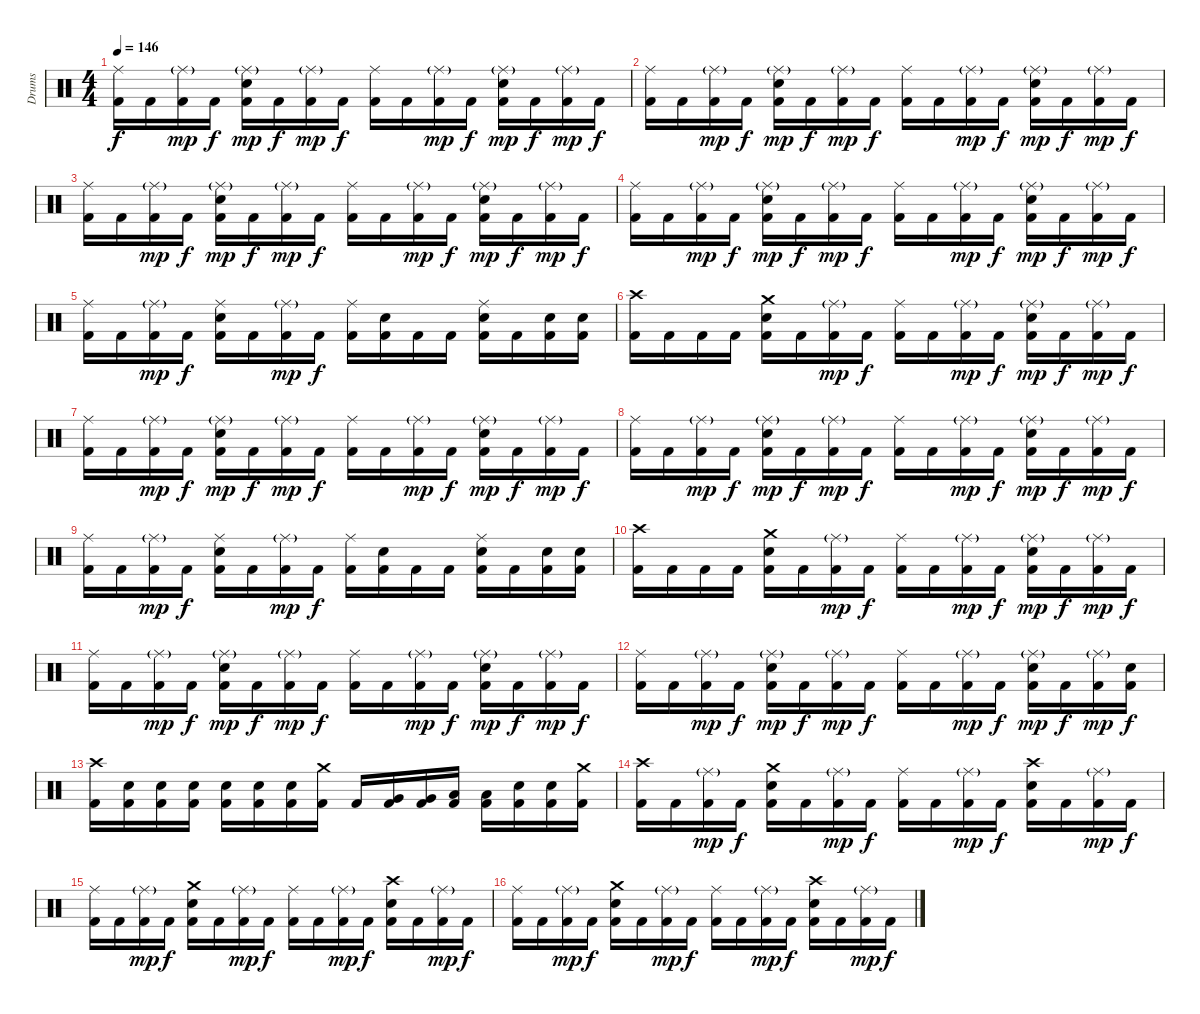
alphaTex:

\track ("Drums" "Drums") {instrument percussion}
\staff {score}
\articulation defaults
\ts (4 4)
\tempo 146
\clef neutral
\ks c
("Ride (middle)" "Kick (hit) 2").16{dy f} "Kick (hit) 2".16 ("Ride (middle)"{g} "Kick (hit) 2").16{dy mp} "Kick (hit) 2".16{dy f} ("Ride (middle)"{g} "Snare (hit) 2" "Kick (hit) 2").16{dy mp} "Kick (hit) 2".16{dy f} ("Ride (middle)"{g} "Kick (hit) 2").16{dy mp} "Kick (hit) 2".16{dy f} ("Ride (middle)" "Kick (hit) 2").16 "Kick (hit) 2".16 ("Ride (middle)"{g} "Kick (hit) 2").16{dy mp} "Kick (hit) 2".16{dy f} ("Ride (middle)"{g} "Snare (hit) 2" "Kick (hit) 2").16{dy mp} "Kick (hit) 2".16{dy f} ("Ride (middle)"{g} "Kick (hit) 2").16{dy mp} "Kick (hit) 2".16{dy f} |
("Ride (middle)" "Kick (hit) 2").16 "Kick (hit) 2".16 ("Ride (middle)"{g} "Kick (hit) 2").16{dy mp} "Kick (hit) 2".16{dy f} ("Ride (middle)"{g} "Snare (hit) 2" "Kick (hit) 2").16{dy mp} "Kick (hit) 2".16{dy f} ("Ride (middle)"{g} "Kick (hit) 2").16{dy mp} "Kick (hit) 2".16{dy f} ("Ride (middle)" "Kick (hit) 2").16 "Kick (hit) 2".16 ("Ride (middle)"{g} "Kick (hit) 2").16{dy mp} "Kick (hit) 2".16{dy f} ("Ride (middle)"{g} "Snare (hit) 2" "Kick (hit) 2").16{dy mp} "Kick (hit) 2".16{dy f} ("Ride (middle)"{g} "Kick (hit) 2").16{dy mp} "Kick (hit) 2".16{dy f} |
("Ride (middle)" "Kick (hit) 2").16 "Kick (hit) 2".16 ("Ride (middle)"{g} "Kick (hit) 2").16{dy mp} "Kick (hit) 2".16{dy f} ("Ride (middle)"{g} "Snare (hit) 2" "Kick (hit) 2").16{dy mp} "Kick (hit) 2".16{dy f} ("Ride (middle)"{g} "Kick (hit) 2").16{dy mp} "Kick (hit) 2".16{dy f} ("Ride (middle)" "Kick (hit) 2").16 "Kick (hit) 2".16 ("Ride (middle)"{g} "Kick (hit) 2").16{dy mp} "Kick (hit) 2".16{dy f} ("Ride (middle)"{g} "Snare (hit) 2" "Kick (hit) 2").16{dy mp} "Kick (hit) 2".16{dy f} ("Ride (middle)"{g} "Kick (hit) 2").16{dy mp} "Kick (hit) 2".16{dy f} |
("Ride (middle)" "Kick (hit) 2").16 "Kick (hit) 2".16 ("Ride (middle)"{g} "Kick (hit) 2").16{dy mp} "Kick (hit) 2".16{dy f} ("Ride (middle)"{g} "Snare (hit) 2" "Kick (hit) 2").16{dy mp} "Kick (hit) 2".16{dy f} ("Ride (middle)"{g} "Kick (hit) 2").16{dy mp} "Kick (hit) 2".16{dy f} ("Ride (middle)" "Kick (hit) 2").16 "Kick (hit) 2".16 ("Ride (middle)"{g} "Kick (hit) 2").16{dy mp} "Kick (hit) 2".16{dy f} ("Ride (middle)"{g} "Snare (hit) 2" "Kick (hit) 2").16{dy mp} "Kick (hit) 2".16{dy f} ("Ride (middle)"{g} "Kick (hit) 2").16{dy mp} "Kick (hit) 2".16{dy f} |
("Ride (middle)" "Kick (hit) 2").16 "Kick (hit) 2".16 ("Ride (middle)"{g} "Kick (hit) 2").16{dy mp} "Kick (hit) 2".16{dy f} ("Ride (middle)" "Snare (hit) 2" "Kick (hit) 2").16 "Kick (hit) 2".16 ("Ride (middle)"{g} "Kick (hit) 2").16{dy mp} "Kick (hit) 2".16{dy f} ("Ride (middle)" "Kick (hit) 2").16 ("Snare (hit) 2" "Kick (hit) 2").16 "Kick (hit) 2".16 "Kick (hit) 2".16 ("Ride (middle)" "Snare (hit) 2" "Kick (hit) 2").16 "Kick (hit) 2".16 ("Snare (hit) 2" "Kick (hit) 2").16 ("Snare (hit) 2" "Kick (hit) 2").16 |
("Crash high (hit)" "Kick (hit) 2").16 "Kick (hit) 2".16 "Kick (hit) 2".16 "Kick (hit) 2".16 ("Crash medium (hit)" "Snare (hit) 2" "Kick (hit) 2").16 "Kick (hit) 2".16 ("Ride (middle)"{g} "Kick (hit) 2").16{dy mp} "Kick (hit) 2".16{dy f} ("Ride (middle)" "Kick (hit) 2").16 "Kick (hit) 2".16 ("Ride (middle)"{g} "Kick (hit) 2").16{dy mp} "Kick (hit) 2".16{dy f} ("Ride (middle)"{g} "Snare (hit) 2" "Kick (hit) 2").16{dy mp} "Kick (hit) 2".16{dy f} ("Ride (middle)"{g} "Kick (hit) 2").16{dy mp} "Kick (hit) 2".16{dy f} |
("Ride (middle)" "Kick (hit) 2").16 "Kick (hit) 2".16 ("Ride (middle)"{g} "Kick (hit) 2").16{dy mp} "Kick (hit) 2".16{dy f} ("Ride (middle)"{g} "Snare (hit) 2" "Kick (hit) 2").16{dy mp} "Kick (hit) 2".16{dy f} ("Ride (middle)"{g} "Kick (hit) 2").16{dy mp} "Kick (hit) 2".16{dy f} ("Ride (middle)" "Kick (hit) 2").16 "Kick (hit) 2".16 ("Ride (middle)"{g} "Kick (hit) 2").16{dy mp} "Kick (hit) 2".16{dy f} ("Ride (middle)"{g} "Snare (hit) 2" "Kick (hit) 2").16{dy mp} "Kick (hit) 2".16{dy f} ("Ride (middle)"{g} "Kick (hit) 2").16{dy mp} "Kick (hit) 2".16{dy f} |
("Ride (middle)" "Kick (hit) 2").16 "Kick (hit) 2".16 ("Ride (middle)"{g} "Kick (hit) 2").16{dy mp} "Kick (hit) 2".16{dy f} ("Ride (middle)"{g} "Snare (hit) 2" "Kick (hit) 2").16{dy mp} "Kick (hit) 2".16{dy f} ("Ride (middle)"{g} "Kick (hit) 2").16{dy mp} "Kick (hit) 2".16{dy f} ("Ride (middle)" "Kick (hit) 2").16 "Kick (hit) 2".16 ("Ride (middle)"{g} "Kick (hit) 2").16{dy mp} "Kick (hit) 2".16{dy f} ("Ride (middle)"{g} "Snare (hit) 2" "Kick (hit) 2").16{dy mp} "Kick (hit) 2".16{dy f} ("Ride (middle)"{g} "Kick (hit) 2").16{dy mp} "Kick (hit) 2".16{dy f} |
("Ride (middle)" "Kick (hit) 2").16 "Kick (hit) 2".16 ("Ride (middle)"{g} "Kick (hit) 2").16{dy mp} "Kick (hit) 2".16{dy f} ("Ride (middle)" "Snare (hit) 2" "Kick (hit) 2").16 "Kick (hit) 2".16 ("Ride (middle)"{g} "Kick (hit) 2").16{dy mp} "Kick (hit) 2".16{dy f} ("Ride (middle)" "Kick (hit) 2").16 ("Snare (hit) 2" "Kick (hit) 2").16 "Kick (hit) 2".16 "Kick (hit) 2".16 ("Ride (middle)" "Snare (hit) 2" "Kick (hit) 2").16 "Kick (hit) 2".16 ("Snare (hit) 2" "Kick (hit) 2").16 ("Snare (hit) 2" "Kick (hit) 2").16 |
("Crash high (hit)" "Kick (hit) 2").16 "Kick (hit) 2".16 "Kick (hit) 2".16 "Kick (hit) 2".16 ("Crash medium (hit)" "Snare (hit) 2" "Kick (hit) 2").16 "Kick (hit) 2".16 ("Ride (middle)"{g} "Kick (hit) 2").16{dy mp} "Kick (hit) 2".16{dy f} ("Ride (middle)" "Kick (hit) 2").16 "Kick (hit) 2".16 ("Ride (middle)"{g} "Kick (hit) 2").16{dy mp} "Kick (hit) 2".16{dy f} ("Ride (middle)"{g} "Snare (hit) 2" "Kick (hit) 2").16{dy mp} "Kick (hit) 2".16{dy f} ("Ride (middle)"{g} "Kick (hit) 2").16{dy mp} "Kick (hit) 2".16{dy f} |
("Ride (middle)" "Kick (hit) 2").16 "Kick (hit) 2".16 ("Ride (middle)"{g} "Kick (hit) 2").16{dy mp} "Kick (hit) 2".16{dy f} ("Ride (middle)"{g} "Snare (hit) 2" "Kick (hit) 2").16{dy mp} "Kick (hit) 2".16{dy f} ("Ride (middle)"{g} "Kick (hit) 2").16{dy mp} "Kick (hit) 2".16{dy f} ("Ride (middle)" "Kick (hit) 2").16 "Kick (hit) 2".16 ("Ride (middle)"{g} "Kick (hit) 2").16{dy mp} "Kick (hit) 2".16{dy f} ("Ride (middle)"{g} "Snare (hit) 2" "Kick (hit) 2").16{dy mp} "Kick (hit) 2".16{dy f} ("Ride (middle)"{g} "Kick (hit) 2").16{dy mp} "Kick (hit) 2".16{dy f} |
("Ride (middle)" "Kick (hit) 2").16 "Kick (hit) 2".16 ("Ride (middle)"{g} "Kick (hit) 2").16{dy mp} "Kick (hit) 2".16{dy f} ("Ride (middle)"{g} "Snare (hit) 2" "Kick (hit) 2").16{dy mp} "Kick (hit) 2".16{dy f} ("Ride (middle)"{g} "Kick (hit) 2").16{dy mp} "Kick (hit) 2".16{dy f} ("Ride (middle)" "Kick (hit) 2").16 "Kick (hit) 2".16 ("Ride (middle)"{g} "Kick (hit) 2").16{dy mp} "Kick (hit) 2".16{dy f} ("Ride (middle)"{g} "Snare (hit) 2" "Kick (hit) 2").16{dy mp} "Kick (hit) 2".16{dy f} ("Ride (middle)"{g} "Kick (hit) 2").16{dy mp} ("Snare (hit) 2" "Kick (hit) 2").16{dy f} |
("Crash high (hit)" "Kick (hit) 2").16 ("Snare (hit) 2" "Kick (hit) 2").16 ("Snare (hit) 2" "Kick (hit) 2").16 ("Snare (hit) 2" "Kick (hit) 2").16 ("Snare (hit) 2" "Kick (hit) 2").16 ("Snare (hit) 2" "Kick (hit) 2").16 ("Snare (hit) 2" "Kick (hit) 2").16 ("Crash medium (hit)" "Kick (hit) 2").16 "Kick (hit) 2".16 ("Very Low Tom (hit)" "Kick (hit) 2").16 ("Very Low Tom (hit)" "Kick (hit) 2").16 ("Low Tom (hit)" "Kick (hit) 2").16 ("Low Tom (hit)" "Kick (hit) 2").16 ("Snare (hit) 2" "Kick (hit) 2").16 ("Snare (hit) 2" "Kick (hit) 2").16 ("Crash medium (hit)" "Kick (hit) 2").16 |
("Crash high (hit)" "Kick (hit) 2").16 "Kick (hit) 2".16 ("Ride (middle)"{g} "Kick (hit) 2").16{dy mp} "Kick (hit) 2".16{dy f} ("Crash medium (hit)" "Snare (hit) 2" "Kick (hit) 2").16 "Kick (hit) 2".16 ("Ride (middle)"{g} "Kick (hit) 2").16{dy mp} "Kick (hit) 2".16{dy f} ("Ride (middle)" "Kick (hit) 2").16 "Kick (hit) 2".16 ("Ride (middle)"{g} "Kick (hit) 2").16{dy mp} "Kick (hit) 2".16{dy f} ("Crash high (hit)" "Snare (hit) 2" "Kick (hit) 2").16 "Kick (hit) 2".16 ("Ride (middle)"{g} "Kick (hit) 2").16{dy mp} "Kick (hit) 2".16{dy f} |
("Ride (middle)" "Kick (hit) 2").16 "Kick (hit) 2".16 ("Ride (middle)"{g} "Kick (hit) 2").16{dy mp} "Kick (hit) 2".16{dy f} ("Crash medium (hit)" "Snare (hit) 2" "Kick (hit) 2").16 "Kick (hit) 2".16 ("Ride (middle)"{g} "Kick (hit) 2").16{dy mp} "Kick (hit) 2".16{dy f} ("Ride (middle)" "Kick (hit) 2").16 "Kick (hit) 2".16 ("Ride (middle)"{g} "Kick (hit) 2").16{dy mp} "Kick (hit) 2".16{dy f} ("Crash high (hit)" "Snare (hit) 2" "Kick (hit) 2").16 "Kick (hit) 2".16 ("Ride (middle)"{g} "Kick (hit) 2").16{dy mp} "Kick (hit) 2".16{dy f} |
("Ride (middle)" "Kick (hit) 2").16 "Kick (hit) 2".16 ("Ride (middle)"{g} "Kick (hit) 2").16{dy mp} "Kick (hit) 2".16{dy f} ("Crash medium (hit)" "Snare (hit) 2" "Kick (hit) 2").16 "Kick (hit) 2".16 ("Ride (middle)"{g} "Kick (hit) 2").16{dy mp} "Kick (hit) 2".16{dy f} ("Ride (middle)" "Kick (hit) 2").16 "Kick (hit) 2".16 ("Ride (middle)"{g} "Kick (hit) 2").16{dy mp} "Kick (hit) 2".16{dy f} ("Crash high (hit)" "Snare (hit) 2" "Kick (hit) 2").16 "Kick (hit) 2".16 ("Ride (middle)"{g} "Kick (hit) 2").16{dy mp} "Kick (hit) 2".16{dy f}
